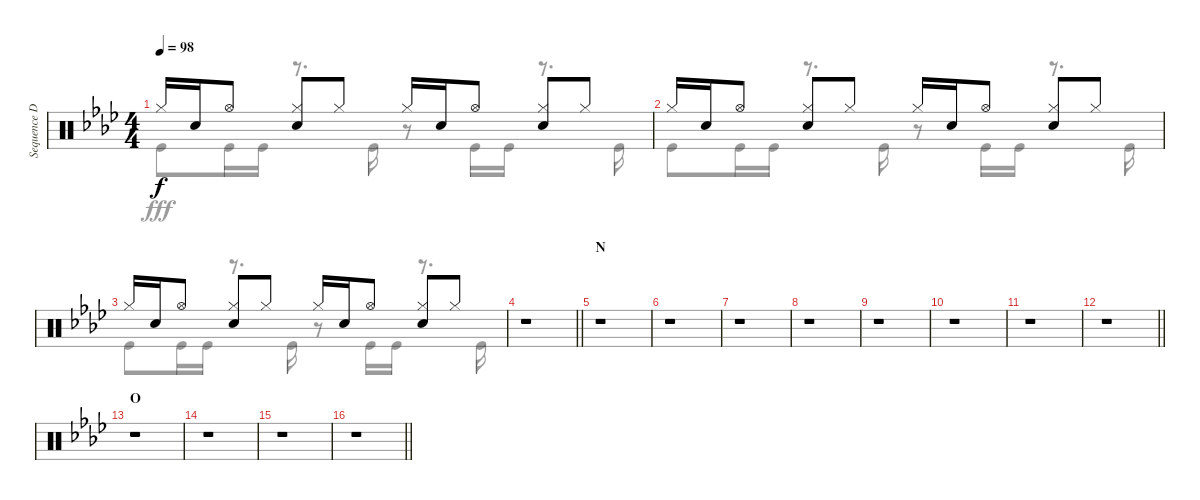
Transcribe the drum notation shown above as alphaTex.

\track ("Sequence Drums II" "Sequence D") {instrument percussion}
\staff {score}
\articulation defaults
\voice
\ts (4 4)
\tempo 98
\clef neutral
\ks ab "Hi-Hat (closed)".16{dy f} "Snare (hit) 2".16 "Hi-Hat (open)".8
("Hi-Hat (closed)" "Snare (hit) 2").8 "Hi-Hat (closed)".8 "Hi-Hat (closed)".16 "Snare (hit) 2".16 "Hi-Hat (open)".8 ("Hi-Hat (closed)" "Snare (hit) 2").8 "Hi-Hat (closed)".8 |
"Hi-Hat (closed)".16 "Snare (hit) 2".16 "Hi-Hat (open)".8 ("Hi-Hat (closed)" "Snare (hit) 2").8 "Hi-Hat (closed)".8 "Hi-Hat (closed)".16 "Snare (hit) 2".16 "Hi-Hat (open)".8 ("Hi-Hat (closed)" "Snare (hit) 2").8 "Hi-Hat (closed)".8 |
"Hi-Hat (closed)".16 "Snare (hit) 2".16 "Hi-Hat (open)".8 ("Hi-Hat (closed)" "Snare (hit) 2").8 "Hi-Hat (closed)".8 "Hi-Hat (closed)".16 "Snare (hit) 2".16 "Hi-Hat (open)".8 ("Hi-Hat (closed)" "Snare (hit) 2").8 "Hi-Hat (closed)".8 |
\barLineRight lightlight
r.1 |
\section ("" "N")
r.1 |
r.1 |
r.1 |
r.1 |
r.1 |
r.1 |
r.1 |
\barLineRight lightlight
r.1 |
\section ("" "O")
r.1 |
r.1 |
r.1 |
\barLineRight lightlight
r.1
\voice
\clef neutral
\ottava regular
\simile none
\ks ab "Kick (hit)".8{dy fff} "Kick (hit)".16 "Kick (hit)".16
r.8{d} "Kick (hit)".16 r.8 "Kick (hit)".16 "Kick (hit)".16 r.8{d} "Kick (hit)".16 |
"Kick (hit)".8 "Kick (hit)".16 "Kick (hit)".16 r.8{d} "Kick (hit)".16 r.8 "Kick (hit)".16 "Kick (hit)".16 r.8{d} "Kick (hit)".16 |
"Kick (hit)".8 "Kick (hit)".16 "Kick (hit)".16 r.8{d} "Kick (hit)".16 r.8 "Kick (hit)".16 "Kick (hit)".16 r.8{d} "Kick (hit)".16 |
\barLineRight lightlight
r.1 |
r.1 |
r.1 |
r.1 |
r.1 |
r.1 |
r.1 |
r.1 |
\barLineRight lightlight
r.1 |
r.1 |
r.1 |
r.1 |
\barLineRight lightlight
r.1
